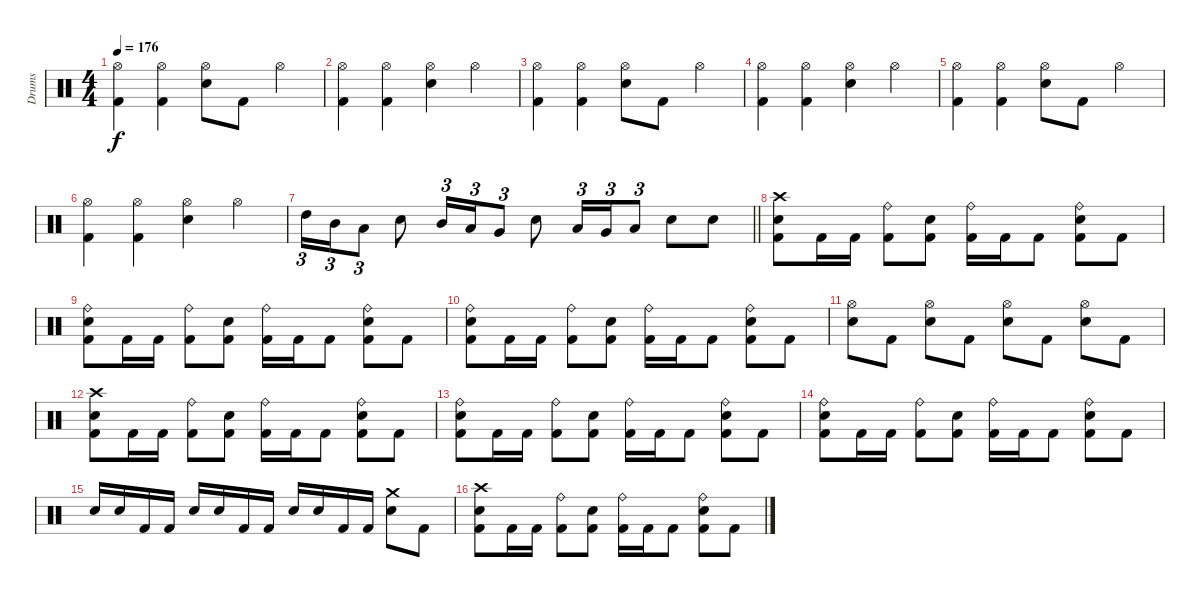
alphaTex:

\track ("Drums" "Drums") {instrument percussion}
\staff {score}
\articulation defaults
\ts (4 4)
\tempo 176
\clef neutral
\ks c
("Hi-Hat (open)" "Kick (hit) 2").4{dy f} ("Hi-Hat (open)" "Kick (hit) 2").4 ("Hi-Hat (open)" "Snare (hit) 2").8 "Kick (hit) 2".8 "Hi-Hat (open)".4 |
("Hi-Hat (open)" "Kick (hit) 2").4 ("Hi-Hat (open)" "Kick (hit) 2").4 ("Hi-Hat (open)" "Snare (hit) 2").4 "Hi-Hat (open)".4 |
("Hi-Hat (open)" "Kick (hit) 2").4 ("Hi-Hat (open)" "Kick (hit) 2").4 ("Hi-Hat (open)" "Snare (hit) 2").8 "Kick (hit) 2".8 "Hi-Hat (open)".4 |
("Hi-Hat (open)" "Kick (hit) 2").4 ("Hi-Hat (open)" "Kick (hit) 2").4 ("Hi-Hat (open)" "Snare (hit) 2").4 "Hi-Hat (open)".4 |
("Hi-Hat (open)" "Kick (hit) 2").4 ("Hi-Hat (open)" "Kick (hit) 2").4 ("Hi-Hat (open)" "Snare (hit) 2").8 "Kick (hit) 2".8 "Hi-Hat (open)".4 |
("Hi-Hat (open)" "Kick (hit) 2").4 ("Hi-Hat (open)" "Kick (hit) 2").4 ("Hi-Hat (open)" "Snare (hit) 2").4 "Hi-Hat (open)".4 |
\barLineRight lightlight "High Tom (hit)".16{tu (3 2)} "Mid Tom (hit)".16{tu (3 2)} "Low Tom (hit)".8{tu (3 2)} "Snare (hit) 2".8 "Mid Tom (hit)".16{tu (3 2)} "Low Tom (hit)".16{tu (3 2)} "Very Low Tom (hit)".8{tu (3 2)} "Snare (hit) 2".8 "Low Tom (hit)".16{tu (3 2)} "Very Low Tom (hit)".16{tu (3 2)} "Low Floor Tom (hit)".8{tu (3 2)} "Snare (hit) 2".8 "Snare (hit) 2".8
|
\section ("" "")
("Crash high (hit)" "Snare (hit) 2" "Kick (hit) 2").8 "Kick (hit) 2".16 "Kick (hit) 2".16 ("Ride (bell)" "Kick (hit) 2").8 ("Snare (hit) 2" "Kick (hit) 2").8 ("Ride (bell)" "Kick (hit) 2").16 "Kick (hit) 2".16 "Kick (hit) 2".8 ("Ride (bell)" "Snare (hit) 2" "Kick (hit) 2").8 "Kick (hit) 2".8 |
("Ride (bell)" "Snare (hit) 2" "Kick (hit) 2").8 "Kick (hit) 2".16 "Kick (hit) 2".16 ("Ride (bell)" "Kick (hit) 2").8 ("Snare (hit) 2" "Kick (hit) 2").8 ("Ride (bell)" "Kick (hit) 2").16 "Kick (hit) 2".16 "Kick (hit) 2".8 ("Ride (bell)" "Snare (hit) 2" "Kick (hit) 2").8 "Kick (hit) 2".8 |
("Ride (bell)" "Snare (hit) 2" "Kick (hit) 2").8 "Kick (hit) 2".16 "Kick (hit) 2".16 ("Ride (bell)" "Kick (hit) 2").8 ("Snare (hit) 2" "Kick (hit) 2").8 ("Ride (bell)" "Kick (hit) 2").16 "Kick (hit) 2".16 "Kick (hit) 2".8 ("Ride (bell)" "Snare (hit) 2" "Kick (hit) 2").8 "Kick (hit) 2".8 |
("Hi-Hat (open)" "Snare (hit) 2").8 "Kick (hit) 2".8 ("Hi-Hat (open)" "Snare (hit) 2").8 "Kick (hit) 2".8 ("Hi-Hat (open)" "Snare (hit) 2").8 "Kick (hit) 2".8 ("Hi-Hat (open)" "Snare (hit) 2").8 "Kick (hit) 2".8 |
("Crash high (hit)" "Snare (hit) 2" "Kick (hit) 2").8 "Kick (hit) 2".16 "Kick (hit) 2".16 ("Ride (bell)" "Kick (hit) 2").8 ("Snare (hit) 2" "Kick (hit) 2").8 ("Ride (bell)" "Kick (hit) 2").16 "Kick (hit) 2".16 "Kick (hit) 2".8 ("Ride (bell)" "Snare (hit) 2" "Kick (hit) 2").8 "Kick (hit) 2".8 |
("Ride (bell)" "Snare (hit) 2" "Kick (hit) 2").8 "Kick (hit) 2".16 "Kick (hit) 2".16 ("Ride (bell)" "Kick (hit) 2").8 ("Snare (hit) 2" "Kick (hit) 2").8 ("Ride (bell)" "Kick (hit) 2").16 "Kick (hit) 2".16 "Kick (hit) 2".8 ("Ride (bell)" "Snare (hit) 2" "Kick (hit) 2").8 "Kick (hit) 2".8 |
("Ride (bell)" "Snare (hit) 2" "Kick (hit) 2").8 "Kick (hit) 2".16 "Kick (hit) 2".16 ("Ride (bell)" "Kick (hit) 2").8 ("Snare (hit) 2" "Kick (hit) 2").8 ("Ride (bell)" "Kick (hit) 2").16 "Kick (hit) 2".16 "Kick (hit) 2".8 ("Ride (bell)" "Snare (hit) 2" "Kick (hit) 2").8 "Kick (hit) 2".8 |
"Snare (hit) 2".16 "Snare (hit) 2".16 "Kick (hit) 2".16 "Kick (hit) 2".16 "Snare (hit) 2".16 "Snare (hit) 2".16 "Kick (hit) 2".16 "Kick (hit) 2".16 "Snare (hit) 2".16 "Snare (hit) 2".16 "Kick (hit) 2".16 "Kick (hit) 2".16 ("Crash medium (hit)" "Snare (hit) 2").8 "Kick (hit) 2".8 |
("Crash high (hit)" "Snare (hit) 2" "Kick (hit) 2").8 "Kick (hit) 2".16 "Kick (hit) 2".16 ("Ride (bell)" "Kick (hit) 2").8 ("Snare (hit) 2" "Kick (hit) 2").8 ("Ride (bell)" "Kick (hit) 2").16 "Kick (hit) 2".16 "Kick (hit) 2".8 ("Ride (bell)" "Snare (hit) 2" "Kick (hit) 2").8 "Kick (hit) 2".8
